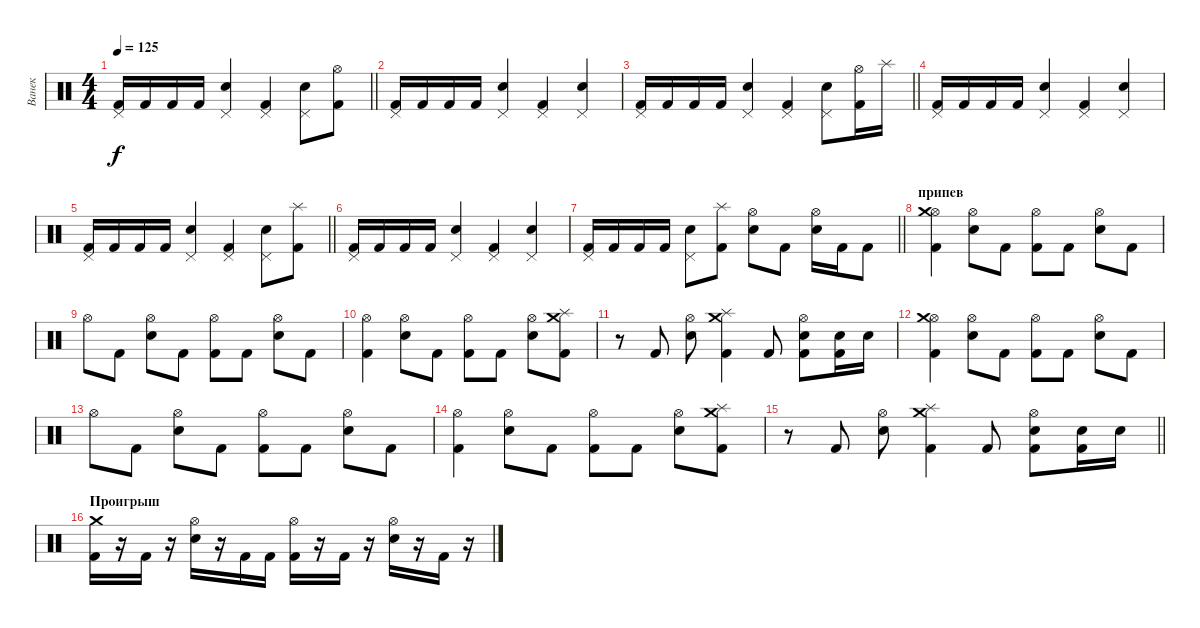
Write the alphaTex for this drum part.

\track ("Ванек" "Ванек") {instrument percussion}
\staff {score}
\articulation defaults
\ts (4 4)
\tempo 125
\clef neutral
\barLineRight lightlight
\ks c
("Pedal Hi-Hat (hit)" "Kick (hit) 2").16{dy f} "Kick (hit) 2".16 "Kick (hit) 2".16 "Kick (hit) 2".16 ("Pedal Hi-Hat (hit)" "Snare (hit) 2").4 ("Pedal Hi-Hat (hit)" "Kick (hit) 2").4 ("Pedal Hi-Hat (hit)" "Snare (hit) 2").8 ("Hi-Hat (open)" "Kick (hit) 2").8 |
("Pedal Hi-Hat (hit)" "Kick (hit) 2").16 "Kick (hit) 2".16 "Kick (hit) 2".16 "Kick (hit) 2".16 ("Pedal Hi-Hat (hit)" "Snare (hit) 2").4 ("Pedal Hi-Hat (hit)" "Kick (hit) 2").4 ("Pedal Hi-Hat (hit)" "Snare (hit) 2").4 |
\barLineRight lightlight
("Pedal Hi-Hat (hit)" "Kick (hit) 2").16 "Kick (hit) 2".16 "Kick (hit) 2".16 "Kick (hit) 2".16 ("Pedal Hi-Hat (hit)" "Snare (hit) 2").4 ("Pedal Hi-Hat (hit)" "Kick (hit) 2").4 ("Pedal Hi-Hat (hit)" "Snare (hit) 2").8 ("Hi-Hat (open)" "Kick (hit) 2").16 "Splash (hit)".16 |
("Pedal Hi-Hat (hit)" "Kick (hit) 2").16 "Kick (hit) 2".16 "Kick (hit) 2".16 "Kick (hit) 2".16 ("Pedal Hi-Hat (hit)" "Snare (hit) 2").4 ("Pedal Hi-Hat (hit)" "Kick (hit) 2").4 ("Pedal Hi-Hat (hit)" "Snare (hit) 2").4 |
\barLineRight lightlight
("Pedal Hi-Hat (hit)" "Kick (hit) 2").16 "Kick (hit) 2".16 "Kick (hit) 2".16 "Kick (hit) 2".16 ("Pedal Hi-Hat (hit)" "Snare (hit) 2").4 ("Pedal Hi-Hat (hit)" "Kick (hit) 2").4 ("Pedal Hi-Hat (hit)" "Snare (hit) 2").8 ("Splash (hit)" "Kick (hit) 2").8 |
("Pedal Hi-Hat (hit)" "Kick (hit) 2").16 "Kick (hit) 2".16 "Kick (hit) 2".16 "Kick (hit) 2".16 ("Pedal Hi-Hat (hit)" "Snare (hit) 2").4 ("Pedal Hi-Hat (hit)" "Kick (hit) 2").4 ("Pedal Hi-Hat (hit)" "Snare (hit) 2").4 |
\barLineRight lightlight
("Pedal Hi-Hat (hit)" "Kick (hit) 2").16 "Kick (hit) 2".16 "Kick (hit) 2".16 "Kick (hit) 2".16 ("Pedal Hi-Hat (hit)" "Snare (hit) 2").8 ("Splash (hit)" "Kick (hit) 2").8 ("Hi-Hat (open)" "Snare (hit) 2").8 "Kick (hit) 2".8 ("Hi-Hat (open)" "Snare (hit) 2").16 "Kick (hit) 2".16 "Kick (hit) 2".8 |
\section ("" "припев")
("Hi-Hat (open)" "Crash medium (hit)" "Kick (hit) 2").4 ("Hi-Hat (open)" "Snare (hit) 2").8 "Kick (hit) 2".8 ("Hi-Hat (open)" "Kick (hit) 2").8 "Kick (hit) 2".8 ("Hi-Hat (open)" "Snare (hit) 2").8 "Kick (hit) 2".8 |
"Hi-Hat (open)".8 "Kick (hit) 2".8 ("Hi-Hat (open)" "Snare (hit) 2").8 "Kick (hit) 2".8 ("Hi-Hat (open)" "Kick (hit) 2").8 "Kick (hit) 2".8 ("Hi-Hat (open)" "Snare (hit) 2").8 "Kick (hit) 2".8 |
("Hi-Hat (open)" "Kick (hit) 2").4 ("Hi-Hat (open)" "Snare (hit) 2").8 "Kick (hit) 2".8 ("Hi-Hat (open)" "Kick (hit) 2").8 "Kick (hit) 2".8 ("Hi-Hat (open)" "Snare (hit) 2").8 ("Crash medium (hit)" "Splash (hit)" "Kick (hit) 2").8 |
r.8 "Kick (hit) 2".8 ("Hi-Hat (open)" "Snare (hit) 2").8 ("Crash medium (hit)" "Splash (hit)" "Kick (hit) 2").4 "Kick (hit) 2".8 ("Hi-Hat (open)" "Snare (hit) 2" "Kick (hit) 2").8 ("Snare (hit) 2" "Kick (hit) 2").16 "Snare (hit) 2".16 |
("Hi-Hat (open)" "Crash medium (hit)" "Kick (hit) 2").4 ("Hi-Hat (open)" "Snare (hit) 2").8 "Kick (hit) 2".8 ("Hi-Hat (open)" "Kick (hit) 2").8 "Kick (hit) 2".8 ("Hi-Hat (open)" "Snare (hit) 2").8 "Kick (hit) 2".8 |
"Hi-Hat (open)".8 "Kick (hit) 2".8 ("Hi-Hat (open)" "Snare (hit) 2").8 "Kick (hit) 2".8 ("Hi-Hat (open)" "Kick (hit) 2").8 "Kick (hit) 2".8 ("Hi-Hat (open)" "Snare (hit) 2").8 "Kick (hit) 2".8 |
("Hi-Hat (open)" "Kick (hit) 2").4 ("Hi-Hat (open)" "Snare (hit) 2").8 "Kick (hit) 2".8 ("Hi-Hat (open)" "Kick (hit) 2").8 "Kick (hit) 2".8 ("Hi-Hat (open)" "Snare (hit) 2").8 ("Crash medium (hit)" "Splash (hit)" "Kick (hit) 2").8 |
\barLineRight lightlight
r.8 "Kick (hit) 2".8 ("Hi-Hat (open)" "Snare (hit) 2").8 ("Crash medium (hit)" "Splash (hit)" "Kick (hit) 2").4 "Kick (hit) 2".8 ("Hi-Hat (open)" "Snare (hit) 2" "Kick (hit) 2").8 ("Snare (hit) 2" "Kick (hit) 2").16 "Snare (hit) 2".16 |
\section ("" "Проигрыш")
("Crash medium (hit)" "Kick (hit) 2").16 r.16 "Kick (hit) 2".16 r.16 ("Hi-Hat (open)" "Snare (hit) 2").16 r.16 "Kick (hit) 2".16 "Kick (hit) 2".16 ("Hi-Hat (open)" "Kick (hit) 2").16 r.16 "Kick (hit) 2".16 r.16 ("Hi-Hat (open)" "Snare (hit) 2").16 r.16 "Kick (hit) 2".16 r.16
